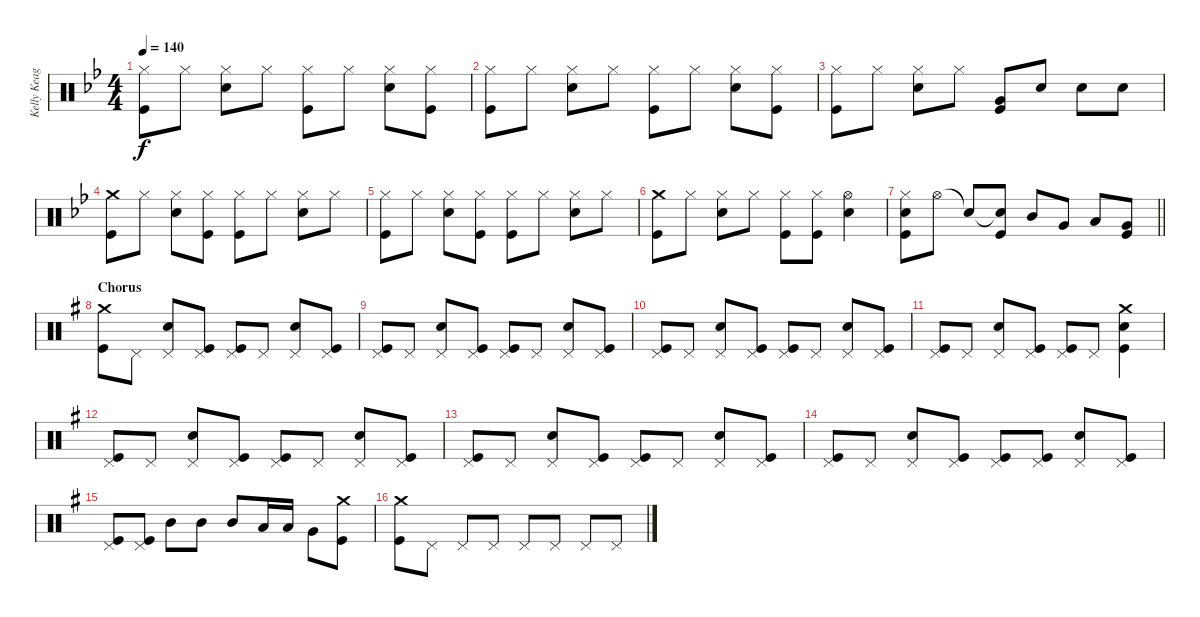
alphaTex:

\track ("Kelly Keagy" "Kelly Keag") {instrument percussion}
\staff {score}
\articulation defaults
\ts (4 4)
\tempo 140
\clef neutral
\ks bb
("Hi-Hat (closed)" "Kick (hit)").8{dy f} "Hi-Hat (closed)".8 ("Hi-Hat (closed)" "Snare (hit) 2").8 "Hi-Hat (closed)".8 ("Hi-Hat (closed)" "Kick (hit)").8 "Hi-Hat (closed)".8 ("Hi-Hat (closed)" "Snare (hit) 2").8 ("Hi-Hat (closed)" "Kick (hit)").8 |
("Hi-Hat (closed)" "Kick (hit)").8 "Hi-Hat (closed)".8 ("Hi-Hat (closed)" "Snare (hit) 2").8 "Hi-Hat (closed)".8 ("Hi-Hat (closed)" "Kick (hit)").8 "Hi-Hat (closed)".8 ("Hi-Hat (closed)" "Snare (hit) 2").8 ("Hi-Hat (closed)" "Kick (hit)").8 |
("Hi-Hat (closed)" "Kick (hit)").8 "Hi-Hat (closed)".8 ("Hi-Hat (closed)" "Snare (hit) 2").8 "Hi-Hat (closed)".8 ("Very Low Tom (hit)" "Kick (hit)").8 "Snare (hit) 2".8 "Snare (hit) 2".8 "Snare (hit) 2".8 |
("Crash medium (hit)" "Kick (hit)").8 "Hi-Hat (closed)".8 ("Hi-Hat (closed)" "Snare (hit) 2").8 ("Hi-Hat (closed)" "Kick (hit)").8 ("Hi-Hat (closed)" "Kick (hit)").8 "Hi-Hat (closed)".8 ("Hi-Hat (closed)" "Snare (hit) 2").8 "Hi-Hat (closed)".8 |
("Hi-Hat (closed)" "Kick (hit)").8 "Hi-Hat (closed)".8 ("Hi-Hat (closed)" "Snare (hit) 2").8 ("Hi-Hat (closed)" "Kick (hit)").8 ("Hi-Hat (closed)" "Kick (hit)").8 "Hi-Hat (closed)".8 ("Hi-Hat (closed)" "Snare (hit) 2").8 "Hi-Hat (closed)".8 |
("Crash medium (hit)" "Kick (hit)").8 "Hi-Hat (closed)".8 ("Hi-Hat (closed)" "Snare (hit) 2").8 "Hi-Hat (closed)".8 ("Hi-Hat (closed)" "Kick (hit)").8 ("Hi-Hat (closed)" "Kick (hit)").8 ("Hi-Hat (open)" "Snare (hit) 2").4 |
\barLineRight lightlight
("Hi-Hat (closed)" "Snare (hit) 2" "Kick (hit)").8 "Hi-Hat (open)".8 "Snare (hit)"{t}.8 ("Snare (hit)"{t} "Kick (hit)").8 "Mid Tom (hit)".8 "Very Low Tom (hit)".8 "Low Tom (hit)".8 ("Very Low Tom (hit)" "Kick (hit)").8 |
\section ("" "Chorus")
\ks g
("Crash medium (hit)" "Kick (hit)").8 "Pedal Hi-Hat (hit)".8 ("Pedal Hi-Hat (hit)" "Snare (hit) 2").8 ("Pedal Hi-Hat (hit)" "Kick (hit)").8 ("Pedal Hi-Hat (hit)" "Kick (hit)").8 "Pedal Hi-Hat (hit)".8 ("Pedal Hi-Hat (hit)" "Snare (hit) 2").8 ("Pedal Hi-Hat (hit)" "Kick (hit)").8 |
("Pedal Hi-Hat (hit)" "Kick (hit)").8 "Pedal Hi-Hat (hit)".8 ("Pedal Hi-Hat (hit)" "Snare (hit) 2").8 ("Pedal Hi-Hat (hit)" "Kick (hit)").8 ("Pedal Hi-Hat (hit)" "Kick (hit)").8 "Pedal Hi-Hat (hit)".8 ("Pedal Hi-Hat (hit)" "Snare (hit) 2").8 ("Pedal Hi-Hat (hit)" "Kick (hit)").8 |
("Pedal Hi-Hat (hit)" "Kick (hit)").8 "Pedal Hi-Hat (hit)".8 ("Pedal Hi-Hat (hit)" "Snare (hit) 2").8 ("Pedal Hi-Hat (hit)" "Kick (hit)").8 ("Pedal Hi-Hat (hit)" "Kick (hit)").8 "Pedal Hi-Hat (hit)".8 ("Pedal Hi-Hat (hit)" "Snare (hit) 2").8 ("Pedal Hi-Hat (hit)" "Kick (hit)").8 |
("Pedal Hi-Hat (hit)" "Kick (hit)").8 "Pedal Hi-Hat (hit)".8 ("Pedal Hi-Hat (hit)" "Snare (hit) 2").8 ("Pedal Hi-Hat (hit)" "Kick (hit)").8 ("Pedal Hi-Hat (hit)" "Kick (hit)").8 "Pedal Hi-Hat (hit)".8 ("Crash medium (hit)" "Snare (hit) 2" "Kick (hit)").4 |
("Pedal Hi-Hat (hit)" "Kick (hit)").8 "Pedal Hi-Hat (hit)".8 ("Pedal Hi-Hat (hit)" "Snare (hit) 2").8 ("Pedal Hi-Hat (hit)" "Kick (hit)").8 ("Pedal Hi-Hat (hit)" "Kick (hit)").8 "Pedal Hi-Hat (hit)".8 ("Pedal Hi-Hat (hit)" "Snare (hit) 2").8 ("Pedal Hi-Hat (hit)" "Kick (hit)").8 |
("Pedal Hi-Hat (hit)" "Kick (hit)").8 "Pedal Hi-Hat (hit)".8 ("Pedal Hi-Hat (hit)" "Snare (hit) 2").8 ("Pedal Hi-Hat (hit)" "Kick (hit)").8 ("Pedal Hi-Hat (hit)" "Kick (hit)").8 "Pedal Hi-Hat (hit)".8 ("Pedal Hi-Hat (hit)" "Snare (hit) 2").8 ("Pedal Hi-Hat (hit)" "Kick (hit)").8 |
("Pedal Hi-Hat (hit)" "Kick (hit)").8 "Pedal Hi-Hat (hit)".8 ("Pedal Hi-Hat (hit)" "Snare (hit) 2").8 ("Pedal Hi-Hat (hit)" "Kick (hit)").8 ("Pedal Hi-Hat (hit)" "Kick (hit)").8 ("Pedal Hi-Hat (hit)" "Kick (hit)").8 ("Pedal Hi-Hat (hit)" "Snare (hit) 2").8 ("Pedal Hi-Hat (hit)" "Kick (hit)").8 |
("Pedal Hi-Hat (hit)" "Kick (hit)").8 ("Pedal Hi-Hat (hit)" "Kick (hit)").8 "Mid Tom (hit)".8 "Mid Tom (hit)".8 "Mid Tom (hit)".8 "Low Tom (hit)".16 "Low Tom (hit)".16 "Very Low Tom (hit)".8 ("Crash medium (hit)" "Kick (hit)").8 |
("Crash medium (hit)" "Kick (hit)").8 "Pedal Hi-Hat (hit)".8 "Pedal Hi-Hat (hit)".8 "Pedal Hi-Hat (hit)".8 "Pedal Hi-Hat (hit)".8 "Pedal Hi-Hat (hit)".8 "Pedal Hi-Hat (hit)".8 "Pedal Hi-Hat (hit)".8
